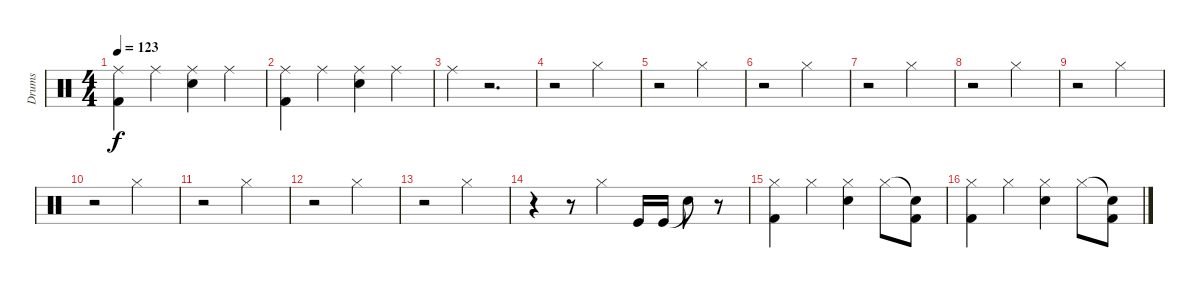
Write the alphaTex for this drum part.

\track ("Drums" "Drums") {instrument percussion}
\staff {score}
\articulation defaults
\ts (4 4)
\tempo 123
\clef neutral
\ks c
("Ride (middle)" "Kick (hit) 2").4{dy f} "Ride (middle)".4 ("Ride (middle)" "Electric Snare (hit)").4 "Ride (middle)".4 |
("Ride (middle)" "Kick (hit) 2").4 "Ride (middle)".4 ("Ride (middle)" "Electric Snare (hit)").4 "Ride (middle)".4 |
"Ride (middle)".4 r.2{d} |
r.2 "Hi-Hat (closed)".2 |
r.2 "Hi-Hat (closed)".2 |
r.2 "Hi-Hat (closed)".2 |
r.2 "Hi-Hat (closed)".2 |
r.2 "Hi-Hat (closed)".2 |
r.2 "Hi-Hat (closed)".2 |
r.2 "Hi-Hat (closed)".2 |
r.2 "Hi-Hat (closed)".2 |
r.2 "Hi-Hat (closed)".2 |
r.2 "Hi-Hat (closed)".2 |
r.4 r.8 "Hi-Hat (closed)".4 "Kick (hit)".16 "Kick (hit)".16 "Snare (hit)"{t}.8 r.8 |
("Hi-Hat (closed)" "Kick (hit) 2").4 "Hi-Hat (closed)".4 ("Hi-Hat (closed)" "Electric Snare (hit)").4 "Hi-Hat (closed)".8 ("Snare (hit)"{t} "Kick (hit) 2").8 |
("Hi-Hat (closed)" "Kick (hit) 2").4 "Hi-Hat (closed)".4 ("Hi-Hat (closed)" "Electric Snare (hit)").4 "Hi-Hat (closed)".8 ("Snare (hit)"{t} "Kick (hit) 2").8
